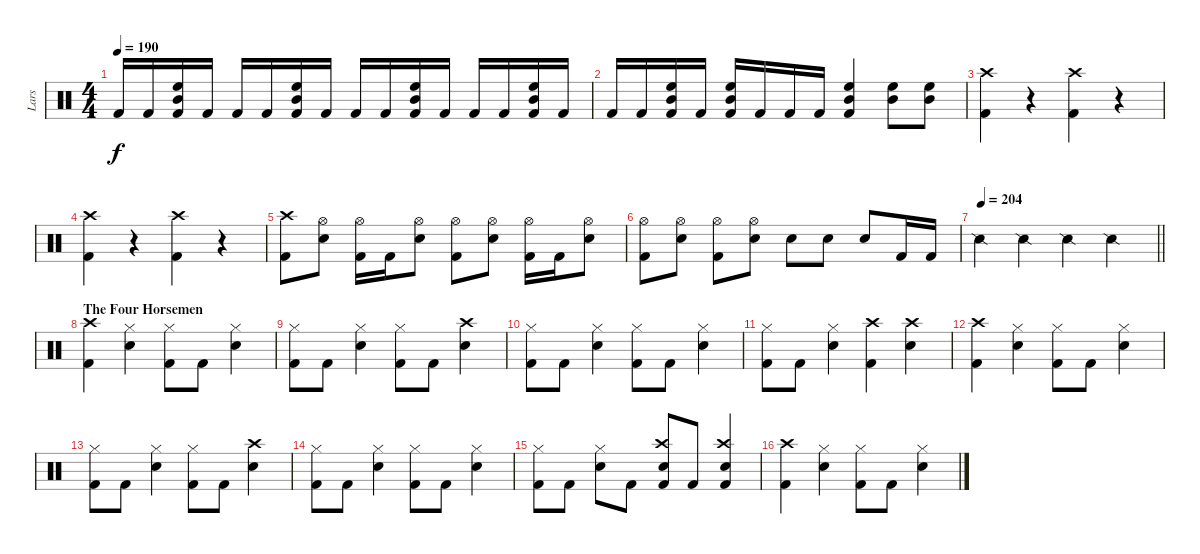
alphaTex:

\track ("Lars" "Lars") {instrument percussion}
\staff {score}
\articulation defaults
\ts (4 4)
\tempo 190
\clef neutral
\ks c "Kick (hit) 2".16{dy f} "Kick (hit) 2".16
("High Floor Tom (hit)" "Mid Tom (hit)" "Kick (hit) 2").16 "Kick (hit) 2".16 "Kick (hit) 2".16 "Kick (hit) 2".16 ("High Floor Tom (hit)" "Mid Tom (hit)" "Kick (hit) 2").16 "Kick (hit) 2".16 "Kick (hit) 2".16 "Kick (hit) 2".16 ("High Floor Tom (hit)" "Mid Tom (hit)" "Kick (hit) 2").16 "Kick (hit) 2".16 "Kick (hit) 2".16 "Kick (hit) 2".16 ("High Floor Tom (hit)" "Mid Tom (hit)" "Kick (hit) 2").16 "Kick (hit) 2".16 |
"Kick (hit) 2".16 "Kick (hit) 2".16 ("High Floor Tom (hit)" "Mid Tom (hit)" "Kick (hit) 2").16 "Kick (hit) 2".16 ("High Floor Tom (hit)" "Mid Tom (hit)" "Kick (hit) 2").16 "Kick (hit) 2".16 "Kick (hit) 2".16 "Kick (hit) 2".16 ("High Floor Tom (hit)" "Mid Tom (hit)" "Kick (hit) 2").4 ("High Floor Tom (hit)" "Mid Tom (hit)").8 ("High Floor Tom (hit)" "Mid Tom (hit)").8 |
("Crash high (hit)" "Kick (hit) 2").4 r.4 ("Crash high (hit)" "Kick (hit) 2").4 r.4 |
("Crash high (hit)" "Kick (hit) 2").4 r.4 ("Crash high (hit)" "Kick (hit) 2").4 r.4 |
("Crash high (hit)" "Kick (hit) 2").8 ("Hi-Hat (open)" "Snare (hit) 2").8 ("Hi-Hat (open)" "Kick (hit) 2").16 "Kick (hit) 2".16 ("Hi-Hat (open)" "Snare (hit) 2").8 ("Hi-Hat (open)" "Kick (hit) 2").8 ("Hi-Hat (open)" "Snare (hit) 2").8 ("Hi-Hat (open)" "Kick (hit) 2").16 "Kick (hit) 2".16 ("Hi-Hat (open)" "Snare (hit) 2").8 |
("Hi-Hat (open)" "Kick (hit) 2").8 ("Hi-Hat (open)" "Snare (hit) 2").8 ("Hi-Hat (open)" "Kick (hit) 2").8 ("Hi-Hat (open)" "Snare (hit) 2").8 "Snare (hit) 2".8 "Snare (hit) 2".8 "Snare (hit) 2".8 "Kick (hit) 2".16 "Kick (hit) 2".16 |
\tempo 204
\barLineRight lightlight "Snare (side stick) 2".4 "Snare (side stick) 2".4 "Snare (side stick) 2".4 "Snare (side stick) 2".4
|
\section ("" "The Four Horsemen")
("Crash high (hit)" "Kick (hit) 2").4 ("Hi-Hat (closed)" "Snare (hit) 2").4 ("Hi-Hat (closed)" "Kick (hit) 2").8 "Kick (hit) 2".8 ("Hi-Hat (closed)" "Snare (hit) 2").4 |
("Hi-Hat (closed)" "Kick (hit) 2").8 "Kick (hit) 2".8 ("Hi-Hat (closed)" "Snare (hit) 2").4 ("Hi-Hat (closed)" "Kick (hit) 2").8 "Kick (hit) 2".8 ("Crash high (hit)" "Snare (hit) 2").4 |
("Hi-Hat (closed)" "Kick (hit) 2").8 "Kick (hit) 2".8 ("Hi-Hat (closed)" "Snare (hit) 2").4 ("Hi-Hat (closed)" "Kick (hit) 2").8 "Kick (hit) 2".8 ("Hi-Hat (closed)" "Snare (hit) 2").4 |
("Hi-Hat (closed)" "Kick (hit) 2").8 "Kick (hit) 2".8 ("Hi-Hat (closed)" "Snare (hit) 2").4 ("Crash high (hit)" "Kick (hit) 2").4 ("Crash high (hit)" "Snare (hit) 2").4 |
("Crash high (hit)" "Kick (hit) 2").4 ("Hi-Hat (closed)" "Snare (hit) 2").4 ("Hi-Hat (closed)" "Kick (hit) 2").8 "Kick (hit) 2".8 ("Hi-Hat (closed)" "Snare (hit) 2").4 |
("Hi-Hat (closed)" "Kick (hit) 2").8 "Kick (hit) 2".8 ("Hi-Hat (closed)" "Snare (hit) 2").4 ("Hi-Hat (closed)" "Kick (hit) 2").8 "Kick (hit) 2".8 ("Crash high (hit)" "Snare (hit) 2").4 |
("Hi-Hat (closed)" "Kick (hit) 2").8 "Kick (hit) 2".8 ("Hi-Hat (closed)" "Snare (hit) 2").4 ("Hi-Hat (closed)" "Kick (hit) 2").8 "Kick (hit) 2".8 ("Hi-Hat (closed)" "Snare (hit) 2").4 |
("Hi-Hat (closed)" "Kick (hit) 2").8 "Kick (hit) 2".8 ("Hi-Hat (closed)" "Snare (hit) 2").8 "Kick (hit) 2".8 ("Crash high (hit)" "Snare (hit) 2" "Kick (hit) 2").8 "Kick (hit) 2".8 ("Crash high (hit)" "Snare (hit) 2" "Kick (hit) 2").4 |
("Crash high (hit)" "Kick (hit) 2").4 ("Hi-Hat (closed)" "Snare (hit) 2").4 ("Hi-Hat (closed)" "Kick (hit) 2").8 "Kick (hit) 2".8 ("Hi-Hat (closed)" "Snare (hit) 2").4
